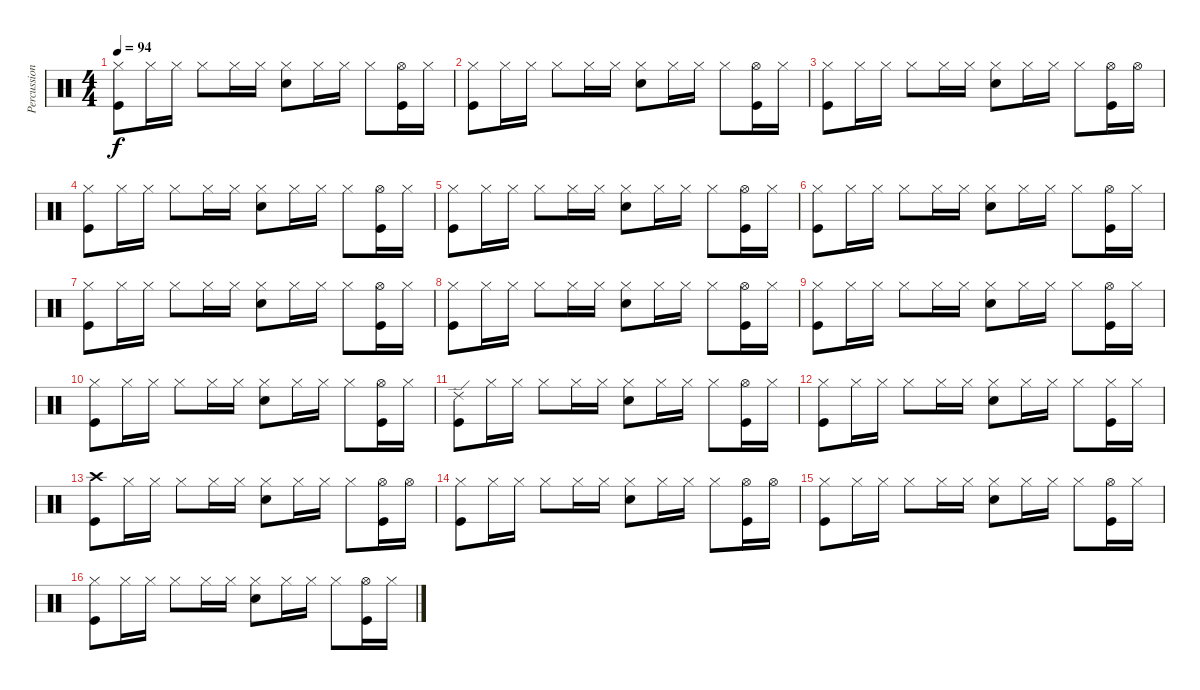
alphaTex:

\track ("Percussions" "Percussion") {instrument percussion}
\staff {score}
\articulation defaults
\ts (4 4)
\tempo 94
\clef neutral
\ks c
("Hi-Hat (closed)" "Kick (hit)").8{dy f} "Hi-Hat (closed)".16 "Hi-Hat (closed)".16 "Hi-Hat (closed)".8 "Hi-Hat (closed)".16 "Hi-Hat (closed)".16 ("Hi-Hat (closed)" "Electric Snare (hit)").8 "Hi-Hat (closed)".16 "Hi-Hat (closed)".16 "Hi-Hat (closed)".8 ("Hi-Hat (open)" "Kick (hit)").16 "Hi-Hat (closed)".16 |
("Hi-Hat (closed)" "Kick (hit)").8 "Hi-Hat (closed)".16 "Hi-Hat (closed)".16 "Hi-Hat (closed)".8 "Hi-Hat (closed)".16 "Hi-Hat (closed)".16 ("Hi-Hat (closed)" "Electric Snare (hit)").8 "Hi-Hat (closed)".16 "Hi-Hat (closed)".16 "Hi-Hat (closed)".8 ("Hi-Hat (open)" "Kick (hit)").16 "Hi-Hat (closed)".16 |
("Hi-Hat (closed)" "Kick (hit)").8 "Hi-Hat (closed)".16 "Hi-Hat (closed)".16 "Hi-Hat (closed)".8 "Hi-Hat (closed)".16 "Hi-Hat (closed)".16 ("Hi-Hat (closed)" "Electric Snare (hit)").8 "Hi-Hat (closed)".16 "Hi-Hat (closed)".16 "Hi-Hat (closed)".8 ("Hi-Hat (open)" "Kick (hit)").16 "Hi-Hat (open)".16 |
("Hi-Hat (closed)" "Kick (hit)").8 "Hi-Hat (closed)".16 "Hi-Hat (closed)".16 "Hi-Hat (closed)".8 "Hi-Hat (closed)".16 "Hi-Hat (closed)".16 ("Hi-Hat (closed)" "Electric Snare (hit)").8 "Hi-Hat (closed)".16 "Hi-Hat (closed)".16 "Hi-Hat (closed)".8 ("Hi-Hat (open)" "Kick (hit)").16 "Hi-Hat (closed)".16 |
("Hi-Hat (closed)" "Kick (hit)").8 "Hi-Hat (closed)".16 "Hi-Hat (closed)".16 "Hi-Hat (closed)".8 "Hi-Hat (closed)".16 "Hi-Hat (closed)".16 ("Hi-Hat (closed)" "Electric Snare (hit)").8 "Hi-Hat (closed)".16 "Hi-Hat (closed)".16 "Hi-Hat (closed)".8 ("Hi-Hat (open)" "Kick (hit)").16 "Hi-Hat (closed)".16 |
("Hi-Hat (closed)" "Kick (hit)").8 "Hi-Hat (closed)".16 "Hi-Hat (closed)".16 "Hi-Hat (closed)".8 "Hi-Hat (closed)".16 "Hi-Hat (closed)".16 ("Hi-Hat (closed)" "Electric Snare (hit)").8 "Hi-Hat (closed)".16 "Hi-Hat (closed)".16 "Hi-Hat (closed)".8 ("Hi-Hat (open)" "Kick (hit)").16 "Hi-Hat (closed)".16 |
("Hi-Hat (closed)" "Kick (hit)").8 "Hi-Hat (closed)".16 "Hi-Hat (closed)".16 "Hi-Hat (closed)".8 "Hi-Hat (closed)".16 "Hi-Hat (closed)".16 ("Hi-Hat (closed)" "Electric Snare (hit)").8 "Hi-Hat (closed)".16 "Hi-Hat (closed)".16 "Hi-Hat (closed)".8 ("Hi-Hat (open)" "Kick (hit)").16 "Hi-Hat (closed)".16 |
("Hi-Hat (closed)" "Kick (hit)").8 "Hi-Hat (closed)".16 "Hi-Hat (closed)".16 "Hi-Hat (closed)".8 "Hi-Hat (closed)".16 "Hi-Hat (closed)".16 ("Hi-Hat (closed)" "Electric Snare (hit)").8 "Hi-Hat (closed)".16 "Hi-Hat (closed)".16 "Hi-Hat (closed)".8 ("Hi-Hat (open)" "Kick (hit)").16 "Hi-Hat (closed)".16 |
("Hi-Hat (closed)" "Kick (hit)").8 "Hi-Hat (closed)".16 "Hi-Hat (closed)".16 "Hi-Hat (closed)".8 "Hi-Hat (closed)".16 "Hi-Hat (closed)".16 ("Hi-Hat (closed)" "Electric Snare (hit)").8 "Hi-Hat (closed)".16 "Hi-Hat (closed)".16 "Hi-Hat (closed)".8 ("Hi-Hat (open)" "Kick (hit)").16 "Hi-Hat (closed)".16 |
("Hi-Hat (closed)" "Kick (hit)").8 "Hi-Hat (closed)".16 "Hi-Hat (closed)".16 "Hi-Hat (closed)".8 "Hi-Hat (closed)".16 "Hi-Hat (closed)".16 ("Hi-Hat (closed)" "Electric Snare (hit)").8 "Hi-Hat (closed)".16 "Hi-Hat (closed)".16 "Hi-Hat (closed)".8 ("Hi-Hat (open)" "Kick (hit)").16 "Hi-Hat (closed)".16 |
("Ride (edge) 2" "Kick (hit)").8 "Hi-Hat (closed)".16 "Hi-Hat (closed)".16 "Hi-Hat (closed)".8 "Hi-Hat (closed)".16 "Hi-Hat (closed)".16 ("Hi-Hat (closed)" "Electric Snare (hit)").8 "Hi-Hat (closed)".16 "Hi-Hat (closed)".16 "Hi-Hat (closed)".8 ("Hi-Hat (open)" "Kick (hit)").16 "Hi-Hat (closed)".16 |
("Hi-Hat (closed)" "Kick (hit)").8 "Hi-Hat (closed)".16 "Hi-Hat (closed)".16 "Hi-Hat (closed)".8 "Hi-Hat (closed)".16 "Hi-Hat (closed)".16 ("Hi-Hat (closed)" "Electric Snare (hit)").8 "Hi-Hat (closed)".16 "Hi-Hat (closed)".16 "Hi-Hat (closed)".8 ("Hi-Hat (closed)" "Kick (hit)").16 "Hi-Hat (closed)".16 |
("Crash high (hit)" "Kick (hit)").8 "Hi-Hat (closed)".16 "Hi-Hat (closed)".16 "Hi-Hat (closed)".8 "Hi-Hat (closed)".16 "Hi-Hat (closed)".16 ("Hi-Hat (closed)" "Electric Snare (hit)").8 "Hi-Hat (closed)".16 "Hi-Hat (closed)".16 "Hi-Hat (closed)".8 ("Hi-Hat (open)" "Kick (hit)").16 "Hi-Hat (open)".16 |
("Hi-Hat (closed)" "Kick (hit)").8 "Hi-Hat (closed)".16 "Hi-Hat (closed)".16 "Hi-Hat (closed)".8 "Hi-Hat (closed)".16 "Hi-Hat (closed)".16 ("Hi-Hat (closed)" "Electric Snare (hit)").8 "Hi-Hat (closed)".16 "Hi-Hat (closed)".16 "Hi-Hat (closed)".8 ("Hi-Hat (open)" "Kick (hit)").16 "Hi-Hat (open)".16 |
("Hi-Hat (closed)" "Kick (hit)").8 "Hi-Hat (closed)".16 "Hi-Hat (closed)".16 "Hi-Hat (closed)".8 "Hi-Hat (closed)".16 "Hi-Hat (closed)".16 ("Hi-Hat (closed)" "Electric Snare (hit)").8 "Hi-Hat (closed)".16 "Hi-Hat (closed)".16 "Hi-Hat (closed)".8 ("Hi-Hat (open)" "Kick (hit)").16 "Hi-Hat (closed)".16 |
("Hi-Hat (closed)" "Kick (hit)").8 "Hi-Hat (closed)".16 "Hi-Hat (closed)".16 "Hi-Hat (closed)".8 "Hi-Hat (closed)".16 "Hi-Hat (closed)".16 ("Hi-Hat (closed)" "Electric Snare (hit)").8 "Hi-Hat (closed)".16 "Hi-Hat (closed)".16 "Hi-Hat (closed)".8 ("Hi-Hat (open)" "Kick (hit)").16 "Hi-Hat (closed)".16
